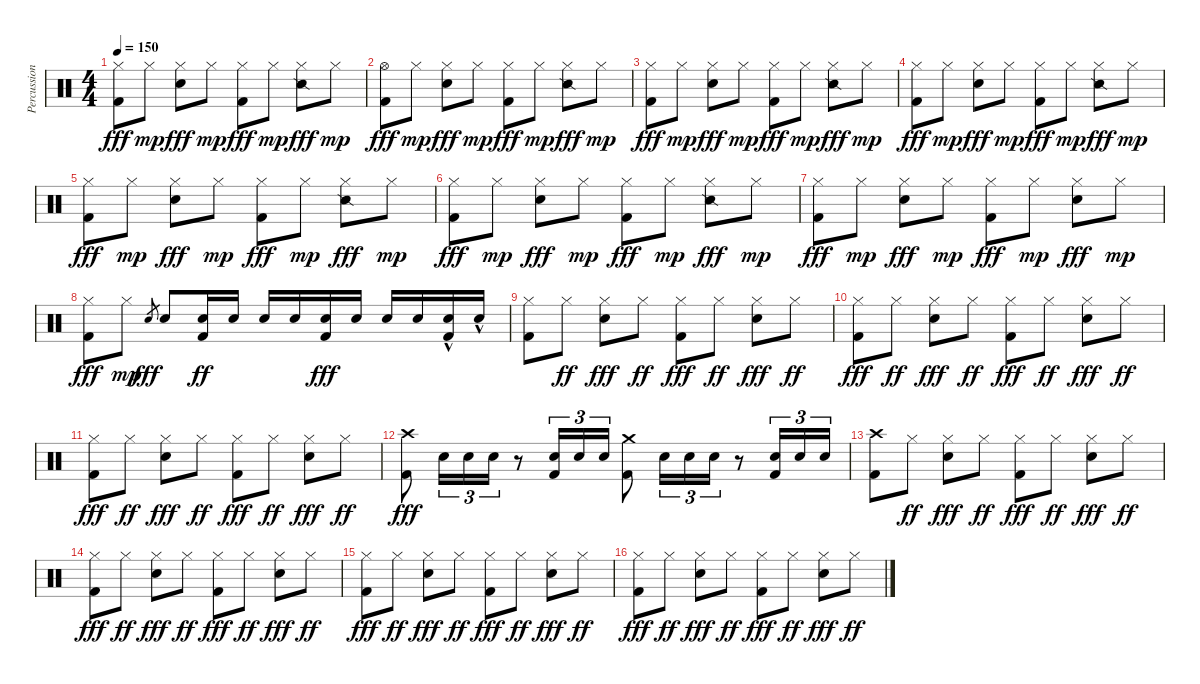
\track ("Percussion" "Percussion") {instrument percussion}
\staff {score}
\articulation defaults
\ts (4 4)
\tempo 150
\clef neutral
\ks c
("Hi-Hat (closed)" "Kick (hit) 2").8{dy fff} "Hi-Hat (closed)".8{dy mp} ("Hi-Hat (closed)" "Snare (hit) 2").8{dy fff} "Hi-Hat (closed)".8{dy mp} ("Hi-Hat (closed)" "Kick (hit) 2").8{dy fff} "Hi-Hat (closed)".8{dy mp} ("Hi-Hat (closed)" "Snare (side stick) 2").8{dy fff} "Hi-Hat (closed)".8{dy mp} |
("Hi-Hat (open)" "Kick (hit) 2").8{dy fff} "Hi-Hat (closed)".8{dy mp} ("Hi-Hat (closed)" "Snare (hit) 2").8{dy fff} "Hi-Hat (closed)".8{dy mp} ("Hi-Hat (closed)" "Kick (hit) 2").8{dy fff} "Hi-Hat (closed)".8{dy mp} ("Hi-Hat (closed)" "Snare (side stick) 2").8{dy fff} "Hi-Hat (closed)".8{dy mp} |
("Hi-Hat (closed)" "Kick (hit) 2").8{dy fff} "Hi-Hat (closed)".8{dy mp} ("Hi-Hat (closed)" "Snare (hit) 2").8{dy fff} "Hi-Hat (closed)".8{dy mp} ("Hi-Hat (closed)" "Kick (hit) 2").8{dy fff} "Hi-Hat (closed)".8{dy mp} ("Hi-Hat (closed)" "Snare (side stick) 2").8{dy fff} "Hi-Hat (closed)".8{dy mp} |
("Hi-Hat (closed)" "Kick (hit) 2").8{dy fff} "Hi-Hat (closed)".8{dy mp} ("Hi-Hat (closed)" "Snare (hit) 2").8{dy fff} "Hi-Hat (closed)".8{dy mp} ("Hi-Hat (closed)" "Kick (hit) 2").8{dy fff} "Hi-Hat (closed)".8{dy mp} ("Hi-Hat (closed)" "Snare (side stick) 2").8{dy fff} "Hi-Hat (closed)".8{dy mp} |
("Hi-Hat (closed)" "Kick (hit) 2").8{dy fff} "Hi-Hat (closed)".8{dy mp} ("Hi-Hat (closed)" "Snare (hit) 2").8{dy fff} "Hi-Hat (closed)".8{dy mp} ("Hi-Hat (closed)" "Kick (hit) 2").8{dy fff} "Hi-Hat (closed)".8{dy mp} ("Hi-Hat (closed)" "Snare (side stick) 2").8{dy fff} "Hi-Hat (closed)".8{dy mp} |
("Hi-Hat (closed)" "Kick (hit) 2").8{dy fff} "Hi-Hat (closed)".8{dy mp} ("Hi-Hat (closed)" "Snare (hit) 2").8{dy fff} "Hi-Hat (closed)".8{dy mp} ("Hi-Hat (closed)" "Kick (hit) 2").8{dy fff} "Hi-Hat (closed)".8{dy mp} ("Hi-Hat (closed)" "Snare (side stick) 2").8{dy fff} "Hi-Hat (closed)".8{dy mp} |
("Hi-Hat (closed)" "Kick (hit) 2").8{dy fff} "Hi-Hat (closed)".8{dy mp} ("Hi-Hat (closed)" "Snare (hit) 2").8{dy fff} "Hi-Hat (closed)".8{dy mp} ("Hi-Hat (closed)" "Kick (hit) 2").8{dy fff} "Hi-Hat (closed)".8{dy mp} ("Hi-Hat (closed)" "Snare (hit) 2").8{dy fff} "Hi-Hat (closed)".8{dy mp} |
("Hi-Hat (closed)" "Kick (hit) 2").8{dy fff} "Hi-Hat (closed)".8{dy mp} "Snare (hit) 2".8{gr dy fff} "Snare (hit) 2".8 ("Snare (hit) 2" "Kick (hit) 2").16{dy ff} "Snare (hit) 2".16 "Snare (hit) 2".16 "Snare (hit) 2".16 ("Snare (hit) 2" "Kick (hit) 2").16{dy fff} "Snare (hit) 2".16 "Snare (hit) 2".16 "Snare (hit) 2".16 ("Snare (hit) 2"{hac} "Kick (hit) 2"{hac}).16 "Snare (hit) 2"{hac}.16 |
("Hi-Hat (closed)" "Kick (hit) 2").8 "Hi-Hat (closed)".8{dy ff} ("Hi-Hat (closed)" "Snare (hit) 2").8{dy fff} "Hi-Hat (closed)".8{dy ff} ("Hi-Hat (closed)" "Kick (hit) 2").8{dy fff} "Hi-Hat (closed)".8{dy ff} ("Hi-Hat (closed)" "Snare (hit) 2").8{dy fff} "Hi-Hat (closed)".8{dy ff} |
("Hi-Hat (closed)" "Kick (hit) 2").8{dy fff} "Hi-Hat (closed)".8{dy ff} ("Hi-Hat (closed)" "Snare (hit) 2").8{dy fff} "Hi-Hat (closed)".8{dy ff} ("Hi-Hat (closed)" "Kick (hit) 2").8{dy fff} "Hi-Hat (closed)".8{dy ff} ("Hi-Hat (closed)" "Snare (hit) 2").8{dy fff} "Hi-Hat (closed)".8{dy ff} |
("Hi-Hat (closed)" "Kick (hit) 2").8{dy fff} "Hi-Hat (closed)".8{dy ff} ("Hi-Hat (closed)" "Snare (hit) 2").8{dy fff} "Hi-Hat (closed)".8{dy ff} ("Hi-Hat (closed)" "Kick (hit) 2").8{dy fff} "Hi-Hat (closed)".8{dy ff} ("Hi-Hat (closed)" "Snare (hit) 2").8{dy fff} "Hi-Hat (closed)".8{dy ff} |
("Crash high (hit)" "Kick (hit) 2").8{dy fff} "Snare (hit) 2".16{tu (3 2)} "Snare (hit) 2".16{tu (3 2)} "Snare (hit) 2".16{tu (3 2)} r.8 ("Snare (hit) 2" "Kick (hit) 2").16{tu (3 2)} "Snare (hit) 2".16{tu (3 2)} "Snare (hit) 2".16{tu (3 2)} ("Crash medium (hit)" "Kick (hit) 2").8 "Snare (hit) 2".16{tu (3 2)} "Snare (hit) 2".16{tu (3 2)} "Snare (hit) 2".16{tu (3 2)} r.8 ("Snare (hit) 2" "Kick (hit) 2").16{tu (3 2)} "Snare (hit) 2".16{tu (3 2)} "Snare (hit) 2".16{tu (3 2)} |
("Crash high (hit)" "Kick (hit) 2").8 "Hi-Hat (closed)".8{dy ff} ("Hi-Hat (closed)" "Snare (hit) 2").8{dy fff} "Hi-Hat (closed)".8{dy ff} ("Hi-Hat (closed)" "Kick (hit) 2").8{dy fff} "Hi-Hat (closed)".8{dy ff} ("Hi-Hat (closed)" "Snare (hit) 2").8{dy fff} "Hi-Hat (closed)".8{dy ff} |
("Hi-Hat (closed)" "Kick (hit) 2").8{dy fff} "Hi-Hat (closed)".8{dy ff} ("Hi-Hat (closed)" "Snare (hit) 2").8{dy fff} "Hi-Hat (closed)".8{dy ff} ("Hi-Hat (closed)" "Kick (hit) 2").8{dy fff} "Hi-Hat (closed)".8{dy ff} ("Hi-Hat (closed)" "Snare (hit) 2").8{dy fff} "Hi-Hat (closed)".8{dy ff} |
("Hi-Hat (closed)" "Kick (hit) 2").8{dy fff} "Hi-Hat (closed)".8{dy ff} ("Hi-Hat (closed)" "Snare (hit) 2").8{dy fff} "Hi-Hat (closed)".8{dy ff} ("Hi-Hat (closed)" "Kick (hit) 2").8{dy fff} "Hi-Hat (closed)".8{dy ff} ("Hi-Hat (closed)" "Snare (hit) 2").8{dy fff} "Hi-Hat (closed)".8{dy ff} |
("Hi-Hat (closed)" "Kick (hit) 2").8{dy fff} "Hi-Hat (closed)".8{dy ff} ("Hi-Hat (closed)" "Snare (hit) 2").8{dy fff} "Hi-Hat (closed)".8{dy ff} ("Hi-Hat (closed)" "Kick (hit) 2").8{dy fff} "Hi-Hat (closed)".8{dy ff} ("Hi-Hat (closed)" "Snare (hit) 2").8{dy fff} "Hi-Hat (closed)".8{dy ff}
